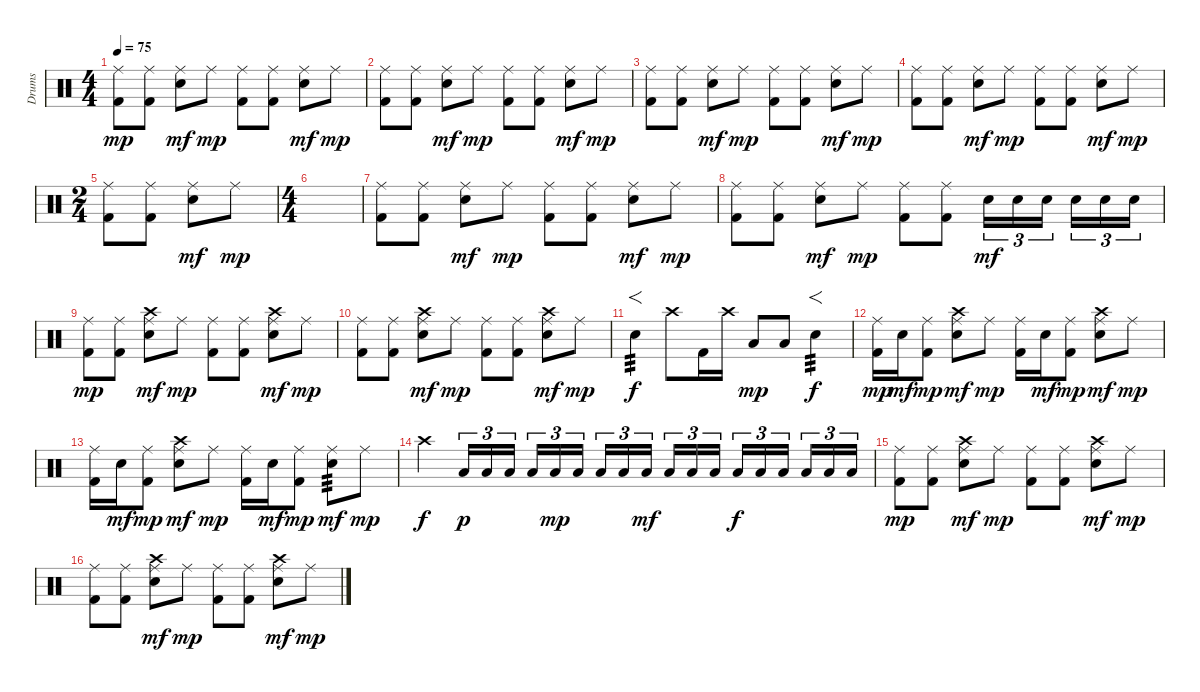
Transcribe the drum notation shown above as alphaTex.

\track ("Drums" "Drums") {instrument percussion}
\staff {score}
\articulation defaults
\ts (4 4)
\tempo 75
\clef neutral
\ks c
("Ride (middle)" "Kick (hit) 2").8{dy mp} ("Ride (middle)" "Kick (hit) 2").8 ("Ride (middle)" "Electric Snare (hit)").8{dy mf} "Ride (middle)".8{dy mp} ("Ride (middle)" "Kick (hit) 2").8 ("Ride (middle)" "Kick (hit) 2").8 ("Ride (middle)" "Electric Snare (hit)").8{dy mf} "Ride (middle)".8{dy mp} |
("Ride (middle)" "Kick (hit) 2").8 ("Ride (middle)" "Kick (hit) 2").8 ("Ride (middle)" "Electric Snare (hit)").8{dy mf} "Ride (middle)".8{dy mp} ("Ride (middle)" "Kick (hit) 2").8 ("Ride (middle)" "Kick (hit) 2").8 ("Ride (middle)" "Electric Snare (hit)").8{dy mf} "Ride (middle)".8{dy mp} |
("Ride (middle)" "Kick (hit) 2").8 ("Ride (middle)" "Kick (hit) 2").8 ("Ride (middle)" "Electric Snare (hit)").8{dy mf} "Ride (middle)".8{dy mp} ("Ride (middle)" "Kick (hit) 2").8 ("Ride (middle)" "Kick (hit) 2").8 ("Ride (middle)" "Electric Snare (hit)").8{dy mf} "Ride (middle)".8{dy mp} |
("Ride (middle)" "Kick (hit) 2").8 ("Ride (middle)" "Kick (hit) 2").8 ("Ride (middle)" "Electric Snare (hit)").8{dy mf} "Ride (middle)".8{dy mp} ("Ride (middle)" "Kick (hit) 2").8 ("Ride (middle)" "Kick (hit) 2").8 ("Ride (middle)" "Electric Snare (hit)").8{dy mf} "Ride (middle)".8{dy mp} |
\ts (2 4)
("Ride (middle)" "Kick (hit) 2").8 ("Ride (middle)" "Kick (hit) 2").8 ("Ride (middle)" "Electric Snare (hit)").8{dy mf} "Ride (middle)".8{dy mp} |
\ts (4 4)
|
("Ride (middle)" "Kick (hit) 2").8 ("Ride (middle)" "Kick (hit) 2").8 ("Ride (middle)" "Electric Snare (hit)").8{dy mf} "Ride (middle)".8{dy mp} ("Ride (middle)" "Kick (hit) 2").8 ("Ride (middle)" "Kick (hit) 2").8 ("Ride (middle)" "Electric Snare (hit)").8{dy mf} "Ride (middle)".8{dy mp} |
("Ride (middle)" "Kick (hit) 2").8 ("Ride (middle)" "Kick (hit) 2").8 ("Ride (middle)" "Electric Snare (hit)").8{dy mf} "Ride (middle)".8{dy mp} ("Ride (middle)" "Kick (hit) 2").8 ("Ride (middle)" "Kick (hit) 2").8 "Electric Snare (hit)".16{tu (3 2) dy mf} "Electric Snare (hit)".16{tu (3 2)} "Electric Snare (hit)".16{tu (3 2)} "Electric Snare (hit)".16{tu (3 2)} "Electric Snare (hit)".16{tu (3 2)} "Electric Snare (hit)".16{tu (3 2)} |
("Ride (middle)" "Kick (hit) 2").8{dy mp} ("Ride (middle)" "Kick (hit) 2").8 ("Crash high (hit)" "Ride (middle)" "Electric Snare (hit)").8{dy mf} "Ride (middle)".8{dy mp} ("Ride (middle)" "Kick (hit) 2").8 ("Ride (middle)" "Kick (hit) 2").8 ("Crash high (hit)" "Ride (middle)" "Electric Snare (hit)").8{dy mf} "Ride (middle)".8{dy mp} |
("Ride (middle)" "Kick (hit) 2").8 ("Ride (middle)" "Kick (hit) 2").8 ("Crash high (hit)" "Ride (middle)" "Electric Snare (hit)").8{dy mf} "Ride (middle)".8{dy mp} ("Ride (middle)" "Kick (hit) 2").8 ("Ride (middle)" "Kick (hit) 2").8 ("Crash high (hit)" "Ride (middle)" "Electric Snare (hit)").8{dy mf} "Ride (middle)".8{dy mp} |
"Electric Snare (hit)".4{f tp 3 dy f} "Crash high (hit)".8 "Kick (hit) 2".16 "Crash high (hit)".16 "Low Tom (hit)".8{dy mp} "Low Tom (hit)".8 "Electric Snare (hit)".4{f tp 3 dy f} |
("Ride (middle)" "Kick (hit) 2").16{dy mp} "Electric Snare (hit)".16{dy mf} ("Ride (middle)" "Kick (hit) 2").8{dy mp} ("Crash high (hit)" "Ride (middle)" "Electric Snare (hit)").8{dy mf} "Ride (middle)".8{dy mp} ("Ride (middle)" "Kick (hit) 2").16 "Electric Snare (hit)".16{dy mf} ("Ride (middle)" "Kick (hit) 2").8{dy mp} ("Crash high (hit)" "Ride (middle)" "Electric Snare (hit)").8{dy mf} "Ride (middle)".8{dy mp} |
("Ride (middle)" "Kick (hit) 2").16 "Electric Snare (hit)".16{dy mf} ("Ride (middle)" "Kick (hit) 2").8{dy mp} ("Crash high (hit)" "Ride (middle)" "Electric Snare (hit)").8{dy mf} "Ride (middle)".8{dy mp} ("Ride (middle)" "Kick (hit) 2").16 "Electric Snare (hit)".16{dy mf} ("Ride (middle)" "Kick (hit) 2").8{dy mp} ("Ride (middle)" "Electric Snare (hit)").8{tp 3 dy mf} "Ride (middle)".8{dy mp} |
"Crash high (hit)".4{dy f} "Low Tom (hit)".16{tu (3 2) dy p} "Low Tom (hit)".16{tu (3 2)} "Low Tom (hit)".16{tu (3 2)} "Low Tom (hit)".16{tu (3 2)} "Low Tom (hit)".16{tu (3 2) dy mp} "Low Tom (hit)".16{tu (3 2)} "Low Tom (hit)".16{tu (3 2)} "Low Tom (hit)".16{tu (3 2)} "Low Tom (hit)".16{tu (3 2) dy mf} "Low Tom (hit)".16{tu (3 2)} "Low Tom (hit)".16{tu (3 2)} "Low Tom (hit)".16{tu (3 2)} "Low Tom (hit)".16{tu (3 2) dy f} "Low Tom (hit)".16{tu (3 2)} "Low Tom (hit)".16{tu (3 2)} "Low Tom (hit)".16{tu (3 2)} "Low Tom (hit)".16{tu (3 2)} "Low Tom (hit)".16{tu (3 2)} |
("Ride (middle)" "Kick (hit) 2").8{dy mp} ("Ride (middle)" "Kick (hit) 2").8 ("Crash high (hit)" "Ride (middle)" "Electric Snare (hit)").8{dy mf} "Ride (middle)".8{dy mp} ("Ride (middle)" "Kick (hit) 2").8 ("Ride (middle)" "Kick (hit) 2").8 ("Crash high (hit)" "Ride (middle)" "Electric Snare (hit)").8{dy mf} "Ride (middle)".8{dy mp} |
("Ride (middle)" "Kick (hit) 2").8 ("Ride (middle)" "Kick (hit) 2").8 ("Crash high (hit)" "Ride (middle)" "Electric Snare (hit)").8{dy mf} "Ride (middle)".8{dy mp} ("Ride (middle)" "Kick (hit) 2").8 ("Ride (middle)" "Kick (hit) 2").8 ("Crash high (hit)" "Ride (middle)" "Electric Snare (hit)").8{dy mf} "Ride (middle)".8{dy mp}
